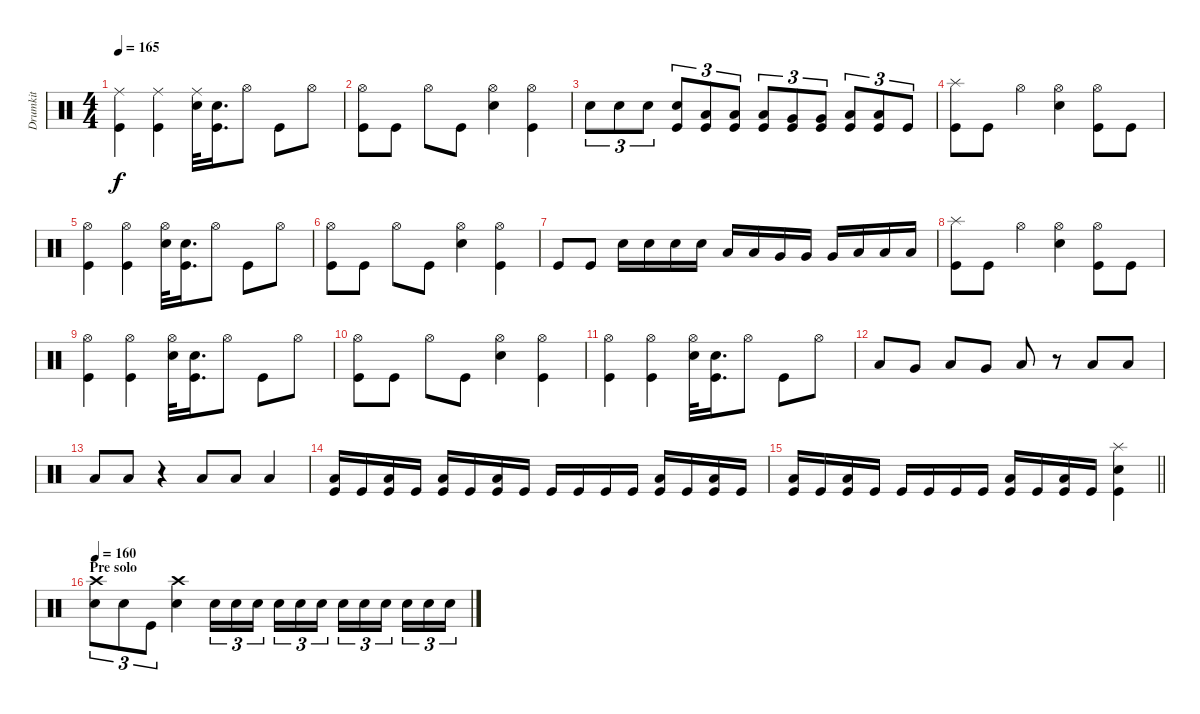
\track ("Drumkit" "Drumkit") {instrument percussion}
\staff {score}
\articulation defaults
\ts (4 4)
\tempo 165
\clef neutral
\ks c
("Ride (middle)" "Kick (hit)").4{dy f} ("Ride (middle)" "Kick (hit)").4 ("Ride (middle)" "Snare (hit) 2").32 ("Snare (hit) 2" "Kick (hit)").16{d} "Hi-Hat (open)".8 "Kick (hit)".8 "Hi-Hat (open)".8 |
("Hi-Hat (open)" "Kick (hit)").8 "Kick (hit)".8 "Hi-Hat (open)".8 "Kick (hit)".8 ("Hi-Hat (open)" "Snare (hit) 2").4 ("Hi-Hat (open)" "Kick (hit)").4 |
"Snare (hit) 2".8{tu (3 2)} "Snare (hit) 2".8{tu (3 2)} "Snare (hit) 2".8{tu (3 2)} ("Snare (hit) 2" "Kick (hit)").8{tu (3 2)} ("Low Tom (hit)" "Kick (hit)").8{tu (3 2)} ("Low Tom (hit)" "Kick (hit)").8{tu (3 2)} ("Low Tom (hit)" "Kick (hit)").8{tu (3 2)} ("Very Low Tom (hit)" "Kick (hit)").8{tu (3 2)} ("Very Low Tom (hit)" "Kick (hit)").8{tu (3 2)} ("Low Floor Tom (hit)" "Kick (hit)").8{tu (3 2)} ("Low Floor Tom (hit)" "Kick (hit)").8{tu (3 2)} "Kick (hit)".8{tu (3 2)} |
("Splash (hit)" "Kick (hit)").8 "Kick (hit)".8 "Hi-Hat (open)".4 ("Hi-Hat (open)" "Snare (hit) 2").4 ("Hi-Hat (open)" "Kick (hit)").8 "Kick (hit)".8 |
("Hi-Hat (open)" "Kick (hit)").4 ("Hi-Hat (open)" "Kick (hit)").4 ("Hi-Hat (open)" "Snare (hit) 2").32 ("Snare (hit) 2" "Kick (hit)").16{d} "Hi-Hat (open)".8 "Kick (hit)".8 "Hi-Hat (open)".8 |
("Hi-Hat (open)" "Kick (hit)").8 "Kick (hit)".8 "Hi-Hat (open)".8 "Kick (hit)".8 ("Hi-Hat (open)" "Snare (hit) 2").4 ("Hi-Hat (open)" "Kick (hit)").4 |
"Kick (hit)".8 "Kick (hit)".8 "Snare (hit) 2".16 "Snare (hit) 2".16 "Snare (hit) 2".16 "Snare (hit) 2".16 "Low Tom (hit)".16 "Low Tom (hit)".16 "Very Low Tom (hit)".16 "Very Low Tom (hit)".16 "Very Low Tom (hit)".16 "Low Floor Tom (hit)".16 "Low Floor Tom (hit)".16 "Low Floor Tom (hit)".16 |
("Splash (hit)" "Kick (hit)").8 "Kick (hit)".8 "Hi-Hat (open)".4 ("Hi-Hat (open)" "Snare (hit) 2").4 ("Hi-Hat (open)" "Kick (hit)").8 "Kick (hit)".8 |
("Hi-Hat (open)" "Kick (hit)").4 ("Hi-Hat (open)" "Kick (hit)").4 ("Hi-Hat (open)" "Snare (hit) 2").32 ("Snare (hit) 2" "Kick (hit)").16{d} "Hi-Hat (open)".8 "Kick (hit)".8 "Hi-Hat (open)".8 |
("Hi-Hat (open)" "Kick (hit)").8 "Kick (hit)".8 "Hi-Hat (open)".8 "Kick (hit)".8 ("Hi-Hat (open)" "Snare (hit) 2").4 ("Hi-Hat (open)" "Kick (hit)").4 |
("Hi-Hat (open)" "Kick (hit)").4 ("Hi-Hat (open)" "Kick (hit)").4 ("Hi-Hat (open)" "Snare (hit) 2").32 ("Snare (hit) 2" "Kick (hit)").16{d} "Hi-Hat (open)".8 "Kick (hit)".8 "Hi-Hat (open)".8 |
"Low Floor Tom (hit)".8 "Very Low Tom (hit)".8 "Low Floor Tom (hit)".8 "Very Low Tom (hit)".8 "Low Floor Tom (hit)".8 r.8 "Low Floor Tom (hit)".8 "Low Floor Tom (hit)".8 |
"Low Floor Tom (hit)".8 "Low Floor Tom (hit)".8 r.4 "Low Floor Tom (hit)".8 "Low Floor Tom (hit)".8 "Low Floor Tom (hit)".4 |
("Low Floor Tom (hit)" "Kick (hit)").16 "Kick (hit)".16 ("Low Floor Tom (hit)" "Kick (hit)").16 "Kick (hit)".16 ("Low Floor Tom (hit)" "Kick (hit)").16 "Kick (hit)".16 ("Low Floor Tom (hit)" "Kick (hit)").16 "Kick (hit)".16 "Kick (hit)".16 "Kick (hit)".16 "Kick (hit)".16 "Kick (hit)".16 ("Low Floor Tom (hit)" "Kick (hit)").16 "Kick (hit)".16 ("Low Floor Tom (hit)" "Kick (hit)").16 "Kick (hit)".16 |
\barLineRight lightlight
("Low Floor Tom (hit)" "Kick (hit)").16 "Kick (hit)".16 ("Low Floor Tom (hit)" "Kick (hit)").16 "Kick (hit)".16 "Kick (hit)".16 "Kick (hit)".16 "Kick (hit)".16 "Kick (hit)".16 ("Low Floor Tom (hit)" "Kick (hit)").16 "Kick (hit)".16 ("Low Floor Tom (hit)" "Kick (hit)").16 "Kick (hit)".16 ("Splash (hit)" "Snare (hit) 2" "Kick (hit)").4 |
\section ("" "Pre solo")
\tempo 160
("Crash high (hit)" "Snare (hit) 2").8{tu (3 2)} "Snare (hit) 2".8{tu (3 2)} "Kick (hit)".8{tu (3 2)} ("Crash high (hit)" "Snare (hit) 2").4 "Snare (hit) 2".16{tu (3 2)} "Snare (hit) 2".16{tu (3 2)} "Snare (hit) 2".16{tu (3 2)} "Snare (hit) 2".16{tu (3 2)} "Snare (hit) 2".16{tu (3 2)} "Snare (hit) 2".16{tu (3 2)} "Snare (hit) 2".16{tu (3 2)} "Snare (hit) 2".16{tu (3 2)} "Snare (hit) 2".16{tu (3 2)} "Snare (hit) 2".16{tu (3 2)} "Snare (hit) 2".16{tu (3 2)} "Snare (hit) 2".16{tu (3 2)}
